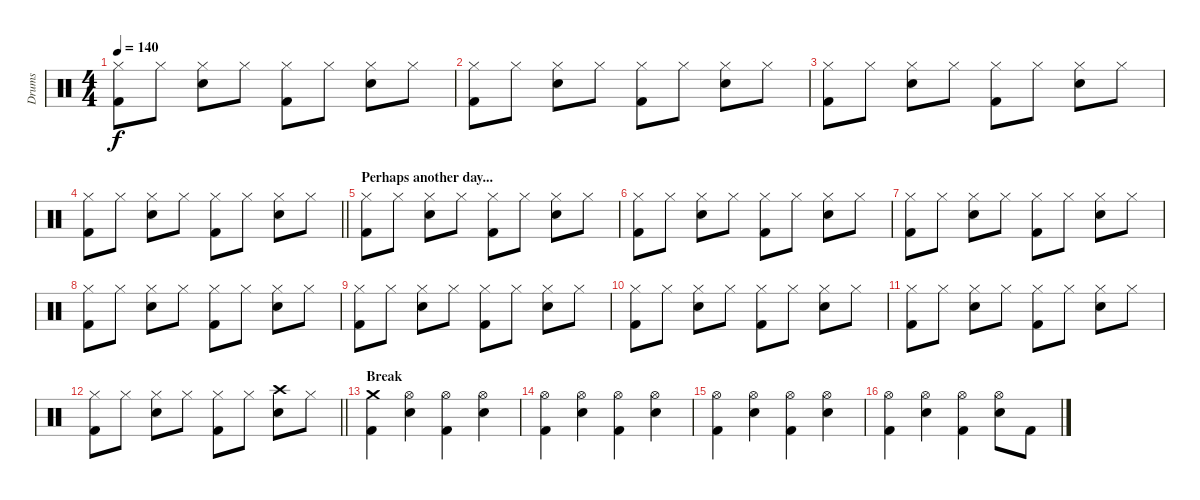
\track ("Drums" "Drums") {instrument percussion}
\staff {score}
\articulation defaults
\ts (4 4)
\tempo 140
\clef neutral
\ks c
("Hi-Hat (closed)" "Kick (hit) 2").8{dy f} "Hi-Hat (closed)".8 ("Hi-Hat (closed)" "Electric Snare (hit)").8 "Hi-Hat (closed)".8 ("Hi-Hat (closed)" "Kick (hit) 2").8 "Hi-Hat (closed)".8 ("Hi-Hat (closed)" "Electric Snare (hit)").8 "Hi-Hat (closed)".8 |
("Hi-Hat (closed)" "Kick (hit) 2").8 "Hi-Hat (closed)".8 ("Hi-Hat (closed)" "Electric Snare (hit)").8 "Hi-Hat (closed)".8 ("Hi-Hat (closed)" "Kick (hit) 2").8 "Hi-Hat (closed)".8 ("Hi-Hat (closed)" "Electric Snare (hit)").8 "Hi-Hat (closed)".8 |
("Hi-Hat (closed)" "Kick (hit) 2").8 "Hi-Hat (closed)".8 ("Hi-Hat (closed)" "Electric Snare (hit)").8 "Hi-Hat (closed)".8 ("Hi-Hat (closed)" "Kick (hit) 2").8 "Hi-Hat (closed)".8 ("Hi-Hat (closed)" "Electric Snare (hit)").8 "Hi-Hat (closed)".8 |
\barLineRight lightlight
("Hi-Hat (closed)" "Kick (hit) 2").8 "Hi-Hat (closed)".8 ("Hi-Hat (closed)" "Electric Snare (hit)").8 "Hi-Hat (closed)".8 ("Hi-Hat (closed)" "Kick (hit) 2").8 "Hi-Hat (closed)".8 ("Hi-Hat (closed)" "Electric Snare (hit)").8 "Hi-Hat (closed)".8 |
\section ("" "Perhaps another day...")
("Hi-Hat (closed)" "Kick (hit) 2").8 "Hi-Hat (closed)".8 ("Hi-Hat (closed)" "Electric Snare (hit)").8 "Hi-Hat (closed)".8 ("Hi-Hat (closed)" "Kick (hit) 2").8 "Hi-Hat (closed)".8 ("Hi-Hat (closed)" "Electric Snare (hit)").8 "Hi-Hat (closed)".8 |
("Hi-Hat (closed)" "Kick (hit) 2").8 "Hi-Hat (closed)".8 ("Hi-Hat (closed)" "Electric Snare (hit)").8 "Hi-Hat (closed)".8 ("Hi-Hat (closed)" "Kick (hit) 2").8 "Hi-Hat (closed)".8 ("Hi-Hat (closed)" "Electric Snare (hit)").8 "Hi-Hat (closed)".8 |
("Hi-Hat (closed)" "Kick (hit) 2").8 "Hi-Hat (closed)".8 ("Hi-Hat (closed)" "Electric Snare (hit)").8 "Hi-Hat (closed)".8 ("Hi-Hat (closed)" "Kick (hit) 2").8 "Hi-Hat (closed)".8 ("Hi-Hat (closed)" "Electric Snare (hit)").8 "Hi-Hat (closed)".8 |
("Hi-Hat (closed)" "Kick (hit) 2").8 "Hi-Hat (closed)".8 ("Hi-Hat (closed)" "Electric Snare (hit)").8 "Hi-Hat (closed)".8 ("Hi-Hat (closed)" "Kick (hit) 2").8 "Hi-Hat (closed)".8 ("Hi-Hat (closed)" "Electric Snare (hit)").8 "Hi-Hat (closed)".8 |
("Hi-Hat (closed)" "Kick (hit) 2").8 "Hi-Hat (closed)".8 ("Hi-Hat (closed)" "Electric Snare (hit)").8 "Hi-Hat (closed)".8 ("Hi-Hat (closed)" "Kick (hit) 2").8 "Hi-Hat (closed)".8 ("Hi-Hat (closed)" "Electric Snare (hit)").8 "Hi-Hat (closed)".8 |
("Hi-Hat (closed)" "Kick (hit) 2").8 "Hi-Hat (closed)".8 ("Hi-Hat (closed)" "Electric Snare (hit)").8 "Hi-Hat (closed)".8 ("Hi-Hat (closed)" "Kick (hit) 2").8 "Hi-Hat (closed)".8 ("Hi-Hat (closed)" "Electric Snare (hit)").8 "Hi-Hat (closed)".8 |
("Hi-Hat (closed)" "Kick (hit) 2").8 "Hi-Hat (closed)".8 ("Hi-Hat (closed)" "Electric Snare (hit)").8 "Hi-Hat (closed)".8 ("Hi-Hat (closed)" "Kick (hit) 2").8 "Hi-Hat (closed)".8 ("Hi-Hat (closed)" "Electric Snare (hit)").8 "Hi-Hat (closed)".8 |
\barLineRight lightlight
("Hi-Hat (closed)" "Kick (hit) 2").8 "Hi-Hat (closed)".8 ("Hi-Hat (closed)" "Electric Snare (hit)").8 "Hi-Hat (closed)".8 ("Hi-Hat (closed)" "Kick (hit) 2").8 "Hi-Hat (closed)".8 ("Crash high (hit)" "Electric Snare (hit)").8 "Hi-Hat (closed)".8 |
\section ("" "Break")
("Crash medium (hit)" "Kick (hit) 2").4 ("Hi-Hat (open)" "Electric Snare (hit)").4 ("Hi-Hat (open)" "Kick (hit) 2").4 ("Hi-Hat (open)" "Electric Snare (hit)").4 |
("Hi-Hat (open)" "Kick (hit) 2").4 ("Hi-Hat (open)" "Electric Snare (hit)").4 ("Hi-Hat (open)" "Kick (hit) 2").4 ("Hi-Hat (open)" "Electric Snare (hit)").4 |
("Hi-Hat (open)" "Kick (hit) 2").4 ("Hi-Hat (open)" "Electric Snare (hit)").4 ("Hi-Hat (open)" "Kick (hit) 2").4 ("Hi-Hat (open)" "Electric Snare (hit)").4 |
("Hi-Hat (open)" "Kick (hit) 2").4 ("Hi-Hat (open)" "Electric Snare (hit)").4 ("Hi-Hat (open)" "Kick (hit) 2").4 ("Hi-Hat (open)" "Electric Snare (hit)").8 "Kick (hit) 2".8
